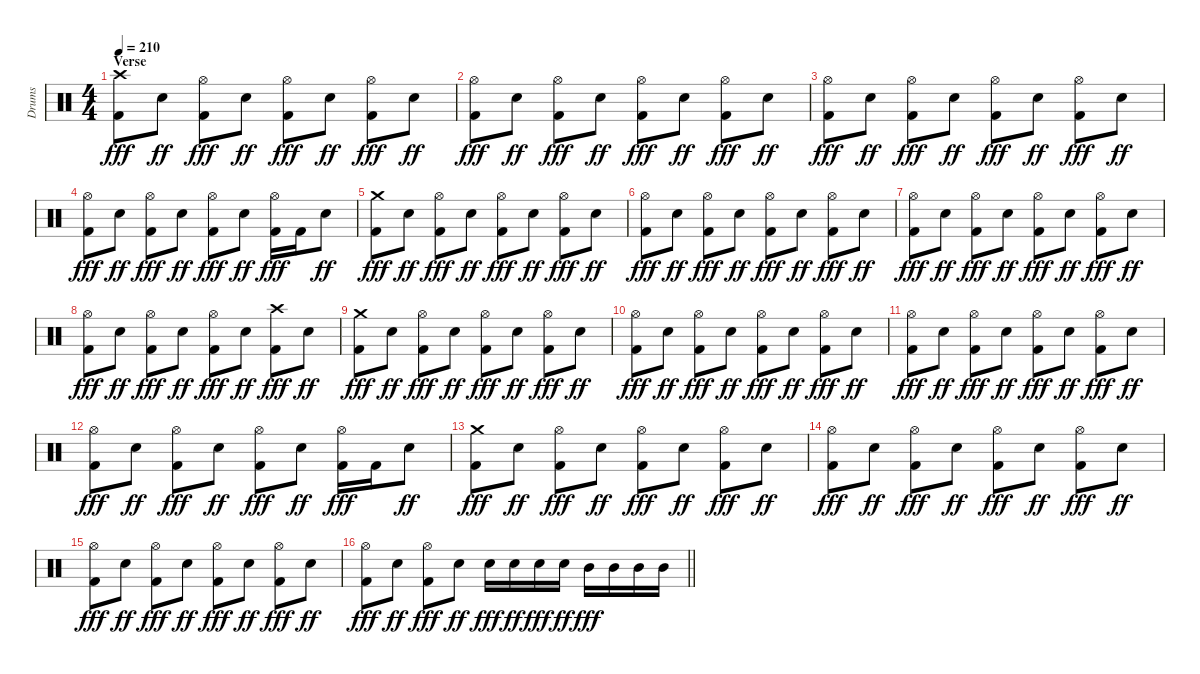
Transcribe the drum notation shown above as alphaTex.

\track ("Drums" "Drums") {instrument percussion}
\staff {score}
\articulation defaults
\ts (4 4)
\section ("" "Verse")
\tempo 210
\clef neutral
\ks c
("Crash high (hit)" "Kick (hit) 2").8{dy fff} "Snare (hit) 2".8{dy ff} ("Hi-Hat (open)" "Kick (hit) 2").8{dy fff} "Snare (hit) 2".8{dy ff} ("Hi-Hat (open)" "Kick (hit) 2").8{dy fff} "Snare (hit) 2".8{dy ff} ("Hi-Hat (open)" "Kick (hit) 2").8{dy fff} "Snare (hit) 2".8{dy ff} |
("Hi-Hat (open)" "Kick (hit) 2").8{dy fff} "Snare (hit) 2".8{dy ff} ("Hi-Hat (open)" "Kick (hit) 2").8{dy fff} "Snare (hit) 2".8{dy ff} ("Hi-Hat (open)" "Kick (hit) 2").8{dy fff} "Snare (hit) 2".8{dy ff} ("Hi-Hat (open)" "Kick (hit) 2").8{dy fff} "Snare (hit) 2".8{dy ff} |
("Hi-Hat (open)" "Kick (hit) 2").8{dy fff} "Snare (hit) 2".8{dy ff} ("Hi-Hat (open)" "Kick (hit) 2").8{dy fff} "Snare (hit) 2".8{dy ff} ("Hi-Hat (open)" "Kick (hit) 2").8{dy fff} "Snare (hit) 2".8{dy ff} ("Hi-Hat (open)" "Kick (hit) 2").8{dy fff} "Snare (hit) 2".8{dy ff} |
("Hi-Hat (open)" "Kick (hit) 2").8{dy fff} "Snare (hit) 2".8{dy ff} ("Hi-Hat (open)" "Kick (hit) 2").8{dy fff} "Snare (hit) 2".8{dy ff} ("Hi-Hat (open)" "Kick (hit) 2").8{dy fff} "Snare (hit) 2".8{dy ff} ("Hi-Hat (open)" "Kick (hit) 2").16{dy fff} "Kick (hit) 2".16 "Snare (hit) 2".8{dy ff} |
("Crash medium (hit)" "Kick (hit) 2").8{dy fff} "Snare (hit) 2".8{dy ff} ("Hi-Hat (open)" "Kick (hit) 2").8{dy fff} "Snare (hit) 2".8{dy ff} ("Hi-Hat (open)" "Kick (hit) 2").8{dy fff} "Snare (hit) 2".8{dy ff} ("Hi-Hat (open)" "Kick (hit) 2").8{dy fff} "Snare (hit) 2".8{dy ff} |
("Hi-Hat (open)" "Kick (hit) 2").8{dy fff} "Snare (hit) 2".8{dy ff} ("Hi-Hat (open)" "Kick (hit) 2").8{dy fff} "Snare (hit) 2".8{dy ff} ("Hi-Hat (open)" "Kick (hit) 2").8{dy fff} "Snare (hit) 2".8{dy ff} ("Hi-Hat (open)" "Kick (hit) 2").8{dy fff} "Snare (hit) 2".8{dy ff} |
("Hi-Hat (open)" "Kick (hit) 2").8{dy fff} "Snare (hit) 2".8{dy ff} ("Hi-Hat (open)" "Kick (hit) 2").8{dy fff} "Snare (hit) 2".8{dy ff} ("Hi-Hat (open)" "Kick (hit) 2").8{dy fff} "Snare (hit) 2".8{dy ff} ("Hi-Hat (open)" "Kick (hit) 2").8{dy fff} "Snare (hit) 2".8{dy ff} |
("Hi-Hat (open)" "Kick (hit) 2").8{dy fff} "Snare (hit) 2".8{dy ff} ("Hi-Hat (open)" "Kick (hit) 2").8{dy fff} "Snare (hit) 2".8{dy ff} ("Hi-Hat (open)" "Kick (hit) 2").8{dy fff} "Snare (hit) 2".8{dy ff} ("Crash high (hit)" "Kick (hit) 2").8{dy fff} "Snare (hit) 2".8{dy ff} |
("Crash medium (hit)" "Kick (hit) 2").8{dy fff} "Snare (hit) 2".8{dy ff} ("Hi-Hat (open)" "Kick (hit) 2").8{dy fff} "Snare (hit) 2".8{dy ff} ("Hi-Hat (open)" "Kick (hit) 2").8{dy fff} "Snare (hit) 2".8{dy ff} ("Hi-Hat (open)" "Kick (hit) 2").8{dy fff} "Snare (hit) 2".8{dy ff} |
("Hi-Hat (open)" "Kick (hit) 2").8{dy fff} "Snare (hit) 2".8{dy ff} ("Hi-Hat (open)" "Kick (hit) 2").8{dy fff} "Snare (hit) 2".8{dy ff} ("Hi-Hat (open)" "Kick (hit) 2").8{dy fff} "Snare (hit) 2".8{dy ff} ("Hi-Hat (open)" "Kick (hit) 2").8{dy fff} "Snare (hit) 2".8{dy ff} |
("Hi-Hat (open)" "Kick (hit) 2").8{dy fff} "Snare (hit) 2".8{dy ff} ("Hi-Hat (open)" "Kick (hit) 2").8{dy fff} "Snare (hit) 2".8{dy ff} ("Hi-Hat (open)" "Kick (hit) 2").8{dy fff} "Snare (hit) 2".8{dy ff} ("Hi-Hat (open)" "Kick (hit) 2").8{dy fff} "Snare (hit) 2".8{dy ff} |
("Hi-Hat (open)" "Kick (hit) 2").8{dy fff} "Snare (hit) 2".8{dy ff} ("Hi-Hat (open)" "Kick (hit) 2").8{dy fff} "Snare (hit) 2".8{dy ff} ("Hi-Hat (open)" "Kick (hit) 2").8{dy fff} "Snare (hit) 2".8{dy ff} ("Hi-Hat (open)" "Kick (hit) 2").16{dy fff} "Kick (hit) 2".16 "Snare (hit) 2".8{dy ff} |
("Crash medium (hit)" "Kick (hit) 2").8{dy fff} "Snare (hit) 2".8{dy ff} ("Hi-Hat (open)" "Kick (hit) 2").8{dy fff} "Snare (hit) 2".8{dy ff} ("Hi-Hat (open)" "Kick (hit) 2").8{dy fff} "Snare (hit) 2".8{dy ff} ("Hi-Hat (open)" "Kick (hit) 2").8{dy fff} "Snare (hit) 2".8{dy ff} |
("Hi-Hat (open)" "Kick (hit) 2").8{dy fff} "Snare (hit) 2".8{dy ff} ("Hi-Hat (open)" "Kick (hit) 2").8{dy fff} "Snare (hit) 2".8{dy ff} ("Hi-Hat (open)" "Kick (hit) 2").8{dy fff} "Snare (hit) 2".8{dy ff} ("Hi-Hat (open)" "Kick (hit) 2").8{dy fff} "Snare (hit) 2".8{dy ff} |
("Hi-Hat (open)" "Kick (hit) 2").8{dy fff} "Snare (hit) 2".8{dy ff} ("Hi-Hat (open)" "Kick (hit) 2").8{dy fff} "Snare (hit) 2".8{dy ff} ("Hi-Hat (open)" "Kick (hit) 2").8{dy fff} "Snare (hit) 2".8{dy ff} ("Hi-Hat (open)" "Kick (hit) 2").8{dy fff} "Snare (hit) 2".8{dy ff} |
\barLineRight lightlight
("Hi-Hat (open)" "Kick (hit) 2").8{dy fff} "Snare (hit) 2".8{dy ff} ("Hi-Hat (open)" "Kick (hit) 2").8{dy fff} "Snare (hit) 2".8{dy ff} "Snare (hit) 2".16{dy fff} "Snare (hit) 2".16{dy ff} "Snare (hit) 2".16{dy fff} "Snare (hit) 2".16{dy ff} "Mid Tom (hit)".16{dy fff} "Mid Tom (hit)".16 "Mid Tom (hit)".16 "Mid Tom (hit)".16
